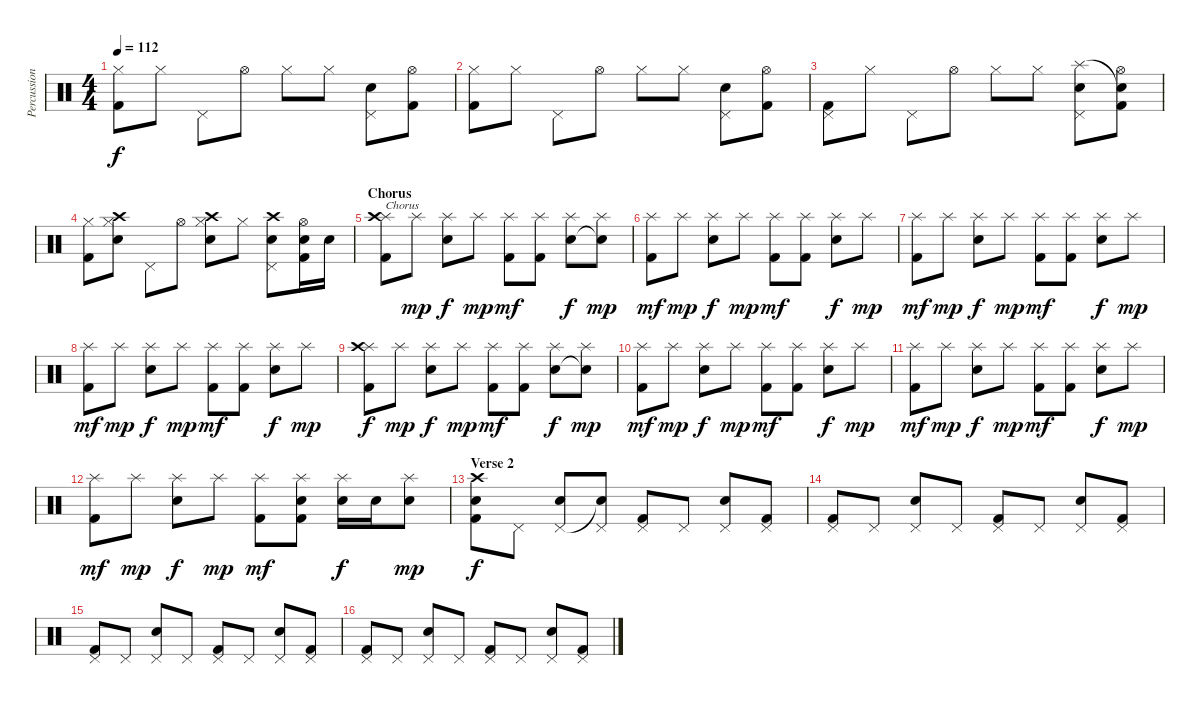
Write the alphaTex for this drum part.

\track ("Percussion" "Percussion") {instrument percussion}
\staff {score}
\articulation defaults
\ts (4 4)
\tempo 112
\clef neutral
\ks c
("Hi-Hat (closed)" "Kick (hit) 2").8{dy f} "Hi-Hat (closed)".8 "Pedal Hi-Hat (hit)".8 "Hi-Hat (open)".8 "Hi-Hat (closed)".8 "Hi-Hat (closed)".8 ("Pedal Hi-Hat (hit)" "Electric Snare (hit)").8 ("Hi-Hat (open)" "Kick (hit) 2").8 |
("Hi-Hat (closed)" "Kick (hit) 2").8 "Hi-Hat (closed)".8 "Pedal Hi-Hat (hit)".8 "Hi-Hat (open)".8 "Hi-Hat (closed)".8 "Hi-Hat (closed)".8 ("Pedal Hi-Hat (hit)" "Electric Snare (hit)").8 ("Hi-Hat (open)" "Kick (hit) 2").8 |
("Pedal Hi-Hat (hit)" "Kick (hit) 2").8 "Hi-Hat (closed)".8 "Pedal Hi-Hat (hit)".8 "Hi-Hat (open)".8 "Hi-Hat (closed)".8 "Hi-Hat (closed)".8 ("Splash (hit)" "Pedal Hi-Hat (hit)" "Electric Snare (hit)").8 ("Snare (hit)"{t} "Hi-Hat (open)" "Kick (hit) 2").8 |
("Hi-Hat (closed)" "Kick (hit) 2").8{volume 13} ("Crash high (hit)" "Hi-Hat (closed)" "Electric Snare (hit)").8 "Pedal Hi-Hat (hit)".8 "Hi-Hat (open)".8 ("Crash high (hit)" "Hi-Hat (closed)" "Electric Snare (hit)").8 "Hi-Hat (closed)".8 ("Crash high (hit)" "Pedal Hi-Hat (hit)" "Electric Snare (hit)").8 ("Hi-Hat (open)" "Electric Snare (hit)" "Kick (hit) 2").16 "Electric Snare (hit)".16 |
\section ("" "Chorus")
("Splash (hit)" "Crash high (hit)" "Kick (hit) 2").8{txt "Chorus" volume 14} "Splash (hit)".8{dy mp} ("Splash (hit)" "Electric Snare (hit)").8{dy f} "Splash (hit)".8{dy mp} ("Splash (hit)" "Kick (hit) 2").8{dy mf} ("Splash (hit)" "Kick (hit) 2").8 ("Splash (hit)" "Electric Snare (hit)").8{dy f} ("Splash (hit)" "Snare (hit)"{t}).8{dy mp} |
("Splash (hit)" "Kick (hit) 2").8{dy mf} "Splash (hit)".8{dy mp} ("Splash (hit)" "Electric Snare (hit)").8{dy f} "Splash (hit)".8{dy mp} ("Splash (hit)" "Kick (hit) 2").8{dy mf} ("Splash (hit)" "Kick (hit) 2").8 ("Splash (hit)" "Electric Snare (hit)").8{dy f} "Splash (hit)".8{dy mp} |
("Splash (hit)" "Kick (hit) 2").8{dy mf} "Splash (hit)".8{dy mp} ("Splash (hit)" "Electric Snare (hit)").8{dy f} "Splash (hit)".8{dy mp} ("Splash (hit)" "Kick (hit) 2").8{dy mf} ("Splash (hit)" "Kick (hit) 2").8 ("Splash (hit)" "Electric Snare (hit)").8{dy f} "Splash (hit)".8{dy mp} |
("Splash (hit)" "Kick (hit) 2").8{dy mf} "Splash (hit)".8{dy mp} ("Splash (hit)" "Electric Snare (hit)").8{dy f} "Splash (hit)".8{dy mp} ("Splash (hit)" "Kick (hit) 2").8{dy mf} ("Splash (hit)" "Kick (hit) 2").8 ("Splash (hit)" "Electric Snare (hit)").8{dy f} "Splash (hit)".8{dy mp} |
("Splash (hit)" "Crash high (hit)" "Kick (hit) 2").8{dy f} "Splash (hit)".8{dy mp} ("Splash (hit)" "Electric Snare (hit)").8{dy f} "Splash (hit)".8{dy mp} ("Splash (hit)" "Kick (hit) 2").8{dy mf} ("Splash (hit)" "Kick (hit) 2").8 ("Splash (hit)" "Electric Snare (hit)").8{dy f} ("Splash (hit)" "Snare (hit)"{t}).8{dy mp} |
("Splash (hit)" "Kick (hit) 2").8{dy mf} "Splash (hit)".8{dy mp} ("Splash (hit)" "Electric Snare (hit)").8{dy f} "Splash (hit)".8{dy mp} ("Splash (hit)" "Kick (hit) 2").8{dy mf} ("Splash (hit)" "Kick (hit) 2").8 ("Splash (hit)" "Electric Snare (hit)").8{dy f} "Splash (hit)".8{dy mp} |
("Splash (hit)" "Kick (hit) 2").8{dy mf} "Splash (hit)".8{dy mp} ("Splash (hit)" "Electric Snare (hit)").8{dy f} "Splash (hit)".8{dy mp} ("Splash (hit)" "Kick (hit) 2").8{dy mf} ("Splash (hit)" "Kick (hit) 2").8 ("Splash (hit)" "Electric Snare (hit)").8{dy f} "Splash (hit)".8{dy mp} |
("Splash (hit)" "Kick (hit) 2").8{dy mf} "Splash (hit)".8{dy mp} ("Splash (hit)" "Electric Snare (hit)").8{dy f} "Splash (hit)".8{dy mp} ("Splash (hit)" "Kick (hit) 2").8{dy mf} ("Splash (hit)" "Electric Snare (hit)" "Kick (hit) 2").8 ("Splash (hit)" "Electric Snare (hit)").16{dy f} "Electric Snare (hit)".16 ("Splash (hit)" "Snare (hit) 2").8{dy mp} |
\section ("" "Verse 2")
("Crash high (hit)" "Snare (hit) 2" "Kick (hit) 2").8{dy f volume 10} "Pedal Hi-Hat (hit)".8 ("Pedal Hi-Hat (hit)" "Electric Snare (hit)").8 ("Snare (hit)"{t} "Pedal Hi-Hat (hit)").8 ("Pedal Hi-Hat (hit)" "Kick (hit) 2").8 "Pedal Hi-Hat (hit)".8 ("Pedal Hi-Hat (hit)" "Electric Snare (hit)").8 ("Pedal Hi-Hat (hit)" "Kick (hit) 2").8 |
("Pedal Hi-Hat (hit)" "Kick (hit) 2").8 "Pedal Hi-Hat (hit)".8 ("Pedal Hi-Hat (hit)" "Electric Snare (hit)").8 "Pedal Hi-Hat (hit)".8 ("Pedal Hi-Hat (hit)" "Kick (hit) 2").8 "Pedal Hi-Hat (hit)".8 ("Pedal Hi-Hat (hit)" "Electric Snare (hit)").8 ("Pedal Hi-Hat (hit)" "Kick (hit) 2").8 |
("Pedal Hi-Hat (hit)" "Kick (hit) 2").8 "Pedal Hi-Hat (hit)".8 ("Pedal Hi-Hat (hit)" "Electric Snare (hit)").8 "Pedal Hi-Hat (hit)".8 ("Pedal Hi-Hat (hit)" "Kick (hit) 2").8 "Pedal Hi-Hat (hit)".8 ("Pedal Hi-Hat (hit)" "Electric Snare (hit)").8 ("Pedal Hi-Hat (hit)" "Kick (hit) 2").8 |
("Pedal Hi-Hat (hit)" "Kick (hit) 2").8 "Pedal Hi-Hat (hit)".8 ("Pedal Hi-Hat (hit)" "Electric Snare (hit)").8 "Pedal Hi-Hat (hit)".8 ("Pedal Hi-Hat (hit)" "Kick (hit) 2").8 "Pedal Hi-Hat (hit)".8 ("Pedal Hi-Hat (hit)" "Electric Snare (hit)").8 ("Pedal Hi-Hat (hit)" "Kick (hit) 2").8
